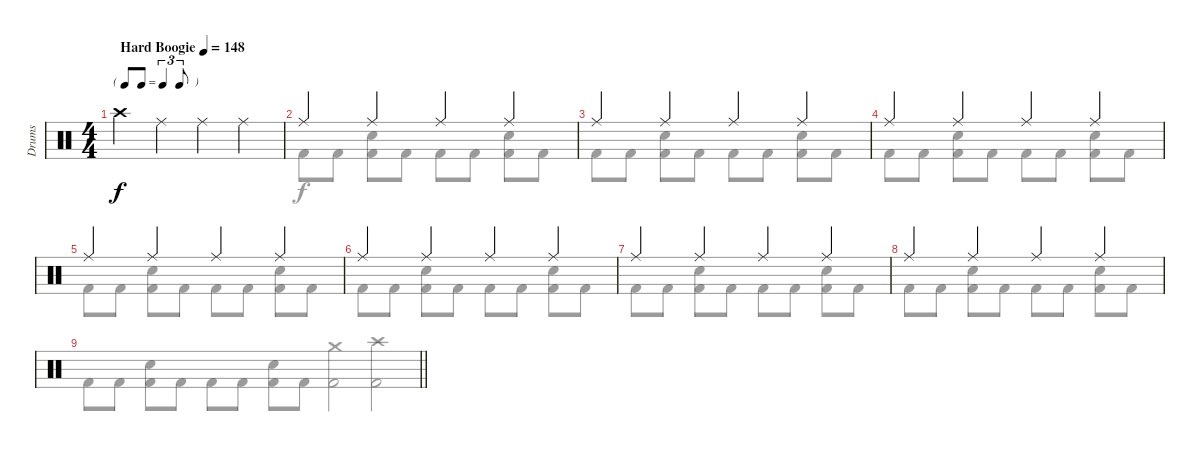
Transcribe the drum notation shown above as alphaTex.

\track ("Drums" "Drums") {instrument percussion}
\staff {score}
\articulation defaults
\voice
\ts (4 4)
\tf triplet8th
\tempo (148 "Hard Boogie")
\clef neutral
\ks c "Crash high (hit)".4{dy f} "Ride (middle)".4 "Ride (middle)".4 "Ride (middle)".4
|
"Ride (middle)".4 "Ride (middle)".4 "Ride (middle)".4 "Ride (middle)".4 |
"Ride (middle)".4 "Ride (middle)".4 "Ride (middle)".4 "Ride (middle)".4 |
"Ride (middle)".4 "Ride (middle)".4 "Ride (middle)".4 "Ride (middle)".4 |
"Ride (middle)".4 "Ride (middle)".4 "Ride (middle)".4 "Ride (middle)".4 |
"Ride (middle)".4 "Ride (middle)".4 "Ride (middle)".4 "Ride (middle)".4 |
"Ride (middle)".4 "Ride (middle)".4 "Ride (middle)".4 "Ride (middle)".4 |
"Ride (middle)".4 "Ride (middle)".4 "Ride (middle)".4 "Ride (middle)".4 |
\barLineRight lightlight
\voice
\clef neutral
\ottava regular
\simile none
\ks c "Kick (hit) 2".8{dy f} "Kick (hit) 2".8
("Electric Snare (hit)" "Kick (hit) 2").8 "Kick (hit) 2".8 "Kick (hit) 2".8 "Kick (hit) 2".8 ("Electric Snare (hit)" "Kick (hit) 2").8 "Kick (hit) 2".8 |
"Kick (hit) 2".8 "Kick (hit) 2".8 ("Electric Snare (hit)" "Kick (hit) 2").8 "Kick (hit) 2".8 "Kick (hit) 2".8 "Kick (hit) 2".8 ("Electric Snare (hit)" "Kick (hit) 2").8 "Kick (hit) 2".8 |
"Kick (hit) 2".8 "Kick (hit) 2".8 ("Electric Snare (hit)" "Kick (hit) 2").8 "Kick (hit) 2".8 "Kick (hit) 2".8 "Kick (hit) 2".8 ("Electric Snare (hit)" "Kick (hit) 2").8 "Kick (hit) 2".8 |
"Kick (hit) 2".8 "Kick (hit) 2".8 ("Electric Snare (hit)" "Kick (hit) 2").8 "Kick (hit) 2".8 "Kick (hit) 2".8 "Kick (hit) 2".8 ("Electric Snare (hit)" "Kick (hit) 2").8 "Kick (hit) 2".8 |
"Kick (hit) 2".8 "Kick (hit) 2".8 ("Electric Snare (hit)" "Kick (hit) 2").8 "Kick (hit) 2".8 "Kick (hit) 2".8 "Kick (hit) 2".8 ("Electric Snare (hit)" "Kick (hit) 2").8 "Kick (hit) 2".8 |
"Kick (hit) 2".8 "Kick (hit) 2".8 ("Electric Snare (hit)" "Kick (hit) 2").8 "Kick (hit) 2".8 "Kick (hit) 2".8 "Kick (hit) 2".8 ("Electric Snare (hit)" "Kick (hit) 2").8 "Kick (hit) 2".8 |
"Kick (hit) 2".8 "Kick (hit) 2".8 ("Electric Snare (hit)" "Kick (hit) 2").8 "Kick (hit) 2".8 "Kick (hit) 2".8 "Kick (hit) 2".8 ("Electric Snare (hit)" "Kick (hit) 2").8 "Kick (hit) 2".8 |
"Kick (hit) 2".8 "Kick (hit) 2".8 ("Electric Snare (hit)" "Kick (hit) 2").8 "Kick (hit) 2".8 "Kick (hit) 2".8 "Kick (hit) 2".8 ("Electric Snare (hit)" "Kick (hit) 2").8 "Kick (hit) 2".8 |
\barLineRight lightlight
("Crash medium (hit)" "Kick (hit) 2").2 ("Crash high (hit)" "Kick (hit) 2").2
